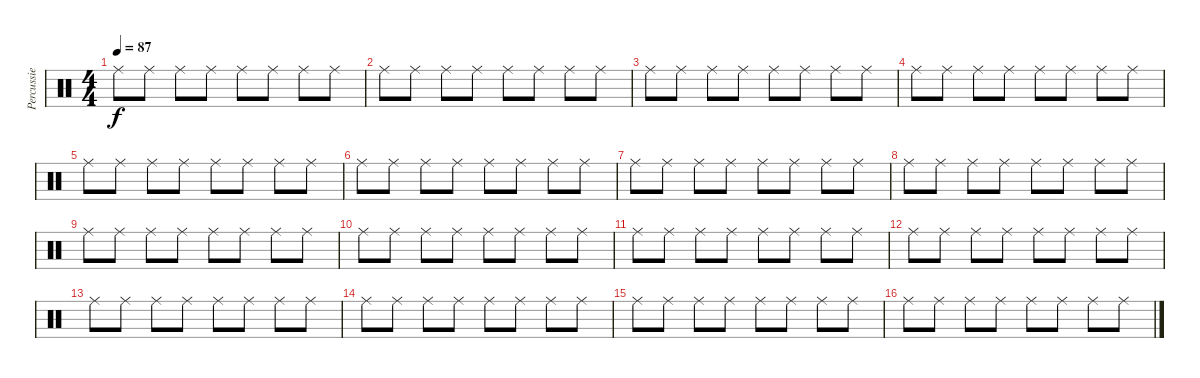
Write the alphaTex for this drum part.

\track ("Percussie" "Percussie") {instrument percussion}
\staff {score}
\articulation defaults
\ts (4 4)
\tempo 87
\clef neutral
\ks c "Ride (middle)".8{dy f} "Ride (middle)".8 "Ride (middle)".8 "Ride (middle)".8 "Ride (middle)".8 "Ride (middle)".8 "Ride (middle)".8 "Ride (middle)".8
|
"Ride (middle)".8 "Ride (middle)".8 "Ride (middle)".8 "Ride (middle)".8 "Ride (middle)".8 "Ride (middle)".8 "Ride (middle)".8 "Ride (middle)".8 |
"Ride (middle)".8 "Ride (middle)".8 "Ride (middle)".8 "Ride (middle)".8 "Ride (middle)".8 "Ride (middle)".8 "Ride (middle)".8 "Ride (middle)".8 |
"Ride (middle)".8 "Ride (middle)".8 "Ride (middle)".8 "Ride (middle)".8 "Ride (middle)".8 "Ride (middle)".8 "Ride (middle)".8 "Ride (middle)".8 |
"Ride (middle)".8 "Ride (middle)".8 "Ride (middle)".8 "Ride (middle)".8 "Ride (middle)".8 "Ride (middle)".8 "Ride (middle)".8 "Ride (middle)".8 |
"Ride (middle)".8 "Ride (middle)".8 "Ride (middle)".8 "Ride (middle)".8 "Ride (middle)".8 "Ride (middle)".8 "Ride (middle)".8 "Ride (middle)".8 |
"Ride (middle)".8 "Ride (middle)".8 "Ride (middle)".8 "Ride (middle)".8 "Ride (middle)".8 "Ride (middle)".8 "Ride (middle)".8 "Ride (middle)".8 |
"Ride (middle)".8 "Ride (middle)".8 "Ride (middle)".8 "Ride (middle)".8 "Ride (middle)".8 "Ride (middle)".8 "Ride (middle)".8 "Ride (middle)".8 |
"Ride (middle)".8 "Ride (middle)".8 "Ride (middle)".8 "Ride (middle)".8 "Ride (middle)".8 "Ride (middle)".8 "Ride (middle)".8 "Ride (middle)".8 |
"Ride (middle)".8 "Ride (middle)".8 "Ride (middle)".8 "Ride (middle)".8 "Ride (middle)".8 "Ride (middle)".8 "Ride (middle)".8 "Ride (middle)".8 |
"Ride (middle)".8 "Ride (middle)".8 "Ride (middle)".8 "Ride (middle)".8 "Ride (middle)".8 "Ride (middle)".8 "Ride (middle)".8 "Ride (middle)".8 |
"Ride (middle)".8 "Ride (middle)".8 "Ride (middle)".8 "Ride (middle)".8 "Ride (middle)".8 "Ride (middle)".8 "Ride (middle)".8 "Ride (middle)".8 |
"Ride (middle)".8 "Ride (middle)".8 "Ride (middle)".8 "Ride (middle)".8 "Ride (middle)".8 "Ride (middle)".8 "Ride (middle)".8 "Ride (middle)".8 |
"Ride (middle)".8 "Ride (middle)".8 "Ride (middle)".8 "Ride (middle)".8 "Ride (middle)".8 "Ride (middle)".8 "Ride (middle)".8 "Ride (middle)".8 |
"Ride (middle)".8 "Ride (middle)".8 "Ride (middle)".8 "Ride (middle)".8 "Ride (middle)".8 "Ride (middle)".8 "Ride (middle)".8 "Ride (middle)".8 |
"Ride (middle)".8 "Ride (middle)".8 "Ride (middle)".8 "Ride (middle)".8 "Ride (middle)".8 "Ride (middle)".8 "Ride (middle)".8 "Ride (middle)".8
